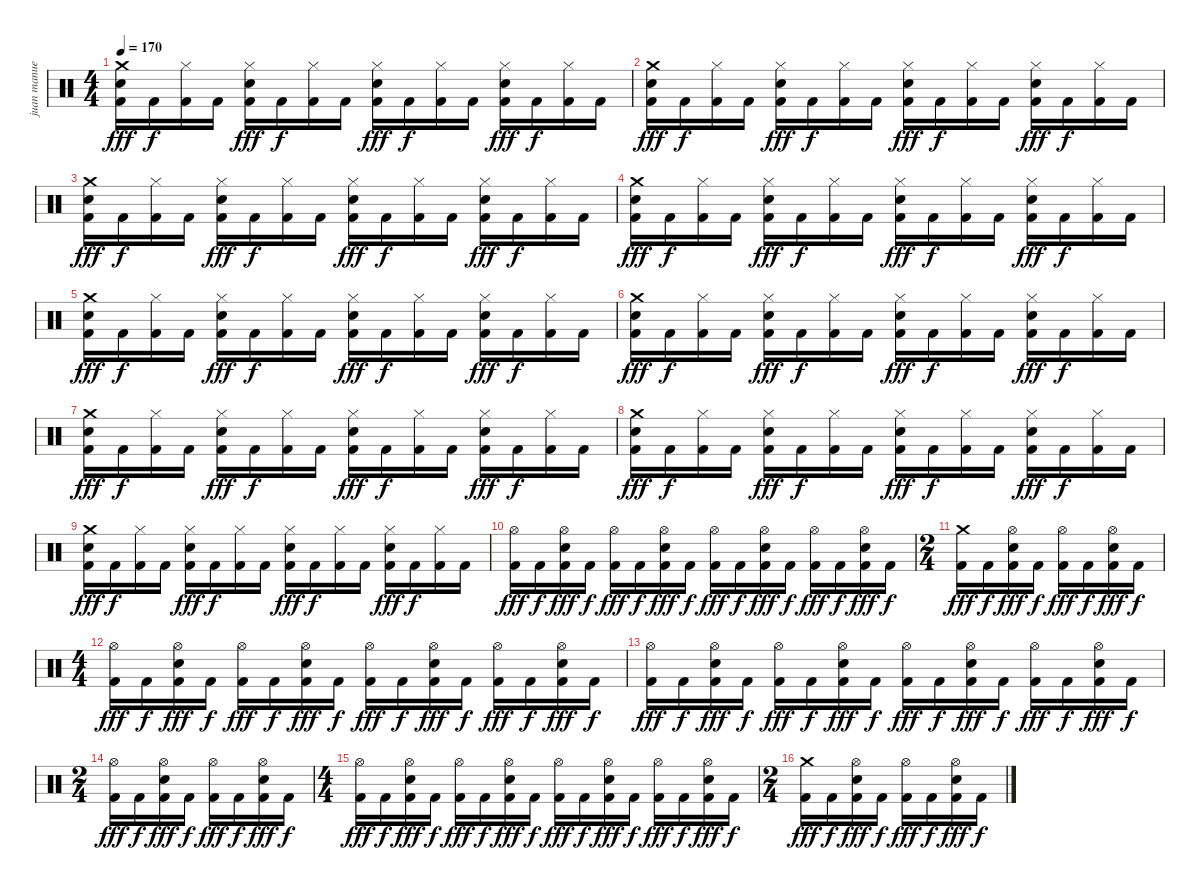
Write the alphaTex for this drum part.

\track ("juan manuel" "juan manue") {instrument percussion}
\staff {score}
\articulation defaults
\ts (4 4)
\tempo 170
\clef neutral
\ks c
("Crash medium (hit)" "Electric Snare (hit)" "Kick (hit) 2").16{dy fff} "Kick (hit) 2".16{dy f} ("Hi-Hat (closed)" "Kick (hit) 2").16 "Kick (hit) 2".16 ("Hi-Hat (closed)" "Electric Snare (hit)" "Kick (hit) 2").16{dy fff} "Kick (hit) 2".16{dy f} ("Hi-Hat (closed)" "Kick (hit) 2").16 "Kick (hit) 2".16 ("Hi-Hat (closed)" "Electric Snare (hit)" "Kick (hit) 2").16{dy fff} "Kick (hit) 2".16{dy f} ("Hi-Hat (closed)" "Kick (hit) 2").16 "Kick (hit) 2".16 ("Hi-Hat (closed)" "Electric Snare (hit)" "Kick (hit) 2").16{dy fff} "Kick (hit) 2".16{dy f} ("Hi-Hat (closed)" "Kick (hit) 2").16 "Kick (hit) 2".16 |
("Crash medium (hit)" "Electric Snare (hit)" "Kick (hit) 2").16{dy fff} "Kick (hit) 2".16{dy f} ("Hi-Hat (closed)" "Kick (hit) 2").16 "Kick (hit) 2".16 ("Hi-Hat (closed)" "Electric Snare (hit)" "Kick (hit) 2").16{dy fff} "Kick (hit) 2".16{dy f} ("Hi-Hat (closed)" "Kick (hit) 2").16 "Kick (hit) 2".16 ("Hi-Hat (closed)" "Electric Snare (hit)" "Kick (hit) 2").16{dy fff} "Kick (hit) 2".16{dy f} ("Hi-Hat (closed)" "Kick (hit) 2").16 "Kick (hit) 2".16 ("Hi-Hat (closed)" "Electric Snare (hit)" "Kick (hit) 2").16{dy fff} "Kick (hit) 2".16{dy f} ("Hi-Hat (closed)" "Kick (hit) 2").16 "Kick (hit) 2".16 |
("Crash medium (hit)" "Electric Snare (hit)" "Kick (hit) 2").16{dy fff} "Kick (hit) 2".16{dy f} ("Hi-Hat (closed)" "Kick (hit) 2").16 "Kick (hit) 2".16 ("Hi-Hat (closed)" "Electric Snare (hit)" "Kick (hit) 2").16{dy fff} "Kick (hit) 2".16{dy f} ("Hi-Hat (closed)" "Kick (hit) 2").16 "Kick (hit) 2".16 ("Hi-Hat (closed)" "Electric Snare (hit)" "Kick (hit) 2").16{dy fff} "Kick (hit) 2".16{dy f} ("Hi-Hat (closed)" "Kick (hit) 2").16 "Kick (hit) 2".16 ("Hi-Hat (closed)" "Electric Snare (hit)" "Kick (hit) 2").16{dy fff} "Kick (hit) 2".16{dy f} ("Hi-Hat (closed)" "Kick (hit) 2").16 "Kick (hit) 2".16 |
("Crash medium (hit)" "Electric Snare (hit)" "Kick (hit) 2").16{dy fff} "Kick (hit) 2".16{dy f} ("Hi-Hat (closed)" "Kick (hit) 2").16 "Kick (hit) 2".16 ("Hi-Hat (closed)" "Electric Snare (hit)" "Kick (hit) 2").16{dy fff} "Kick (hit) 2".16{dy f} ("Hi-Hat (closed)" "Kick (hit) 2").16 "Kick (hit) 2".16 ("Hi-Hat (closed)" "Electric Snare (hit)" "Kick (hit) 2").16{dy fff} "Kick (hit) 2".16{dy f} ("Hi-Hat (closed)" "Kick (hit) 2").16 "Kick (hit) 2".16 ("Hi-Hat (closed)" "Electric Snare (hit)" "Kick (hit) 2").16{dy fff} "Kick (hit) 2".16{dy f} ("Hi-Hat (closed)" "Kick (hit) 2").16 "Kick (hit) 2".16 |
("Crash medium (hit)" "Electric Snare (hit)" "Kick (hit) 2").16{dy fff} "Kick (hit) 2".16{dy f} ("Hi-Hat (closed)" "Kick (hit) 2").16 "Kick (hit) 2".16 ("Hi-Hat (closed)" "Electric Snare (hit)" "Kick (hit) 2").16{dy fff} "Kick (hit) 2".16{dy f} ("Hi-Hat (closed)" "Kick (hit) 2").16 "Kick (hit) 2".16 ("Hi-Hat (closed)" "Electric Snare (hit)" "Kick (hit) 2").16{dy fff} "Kick (hit) 2".16{dy f} ("Hi-Hat (closed)" "Kick (hit) 2").16 "Kick (hit) 2".16 ("Hi-Hat (closed)" "Electric Snare (hit)" "Kick (hit) 2").16{dy fff} "Kick (hit) 2".16{dy f} ("Hi-Hat (closed)" "Kick (hit) 2").16 "Kick (hit) 2".16 |
("Crash medium (hit)" "Electric Snare (hit)" "Kick (hit) 2").16{dy fff} "Kick (hit) 2".16{dy f} ("Hi-Hat (closed)" "Kick (hit) 2").16 "Kick (hit) 2".16 ("Hi-Hat (closed)" "Electric Snare (hit)" "Kick (hit) 2").16{dy fff} "Kick (hit) 2".16{dy f} ("Hi-Hat (closed)" "Kick (hit) 2").16 "Kick (hit) 2".16 ("Hi-Hat (closed)" "Electric Snare (hit)" "Kick (hit) 2").16{dy fff} "Kick (hit) 2".16{dy f} ("Hi-Hat (closed)" "Kick (hit) 2").16 "Kick (hit) 2".16 ("Hi-Hat (closed)" "Electric Snare (hit)" "Kick (hit) 2").16{dy fff} "Kick (hit) 2".16{dy f} ("Hi-Hat (closed)" "Kick (hit) 2").16 "Kick (hit) 2".16 |
("Crash medium (hit)" "Electric Snare (hit)" "Kick (hit) 2").16{dy fff} "Kick (hit) 2".16{dy f} ("Hi-Hat (closed)" "Kick (hit) 2").16 "Kick (hit) 2".16 ("Hi-Hat (closed)" "Electric Snare (hit)" "Kick (hit) 2").16{dy fff} "Kick (hit) 2".16{dy f} ("Hi-Hat (closed)" "Kick (hit) 2").16 "Kick (hit) 2".16 ("Hi-Hat (closed)" "Electric Snare (hit)" "Kick (hit) 2").16{dy fff} "Kick (hit) 2".16{dy f} ("Hi-Hat (closed)" "Kick (hit) 2").16 "Kick (hit) 2".16 ("Hi-Hat (closed)" "Electric Snare (hit)" "Kick (hit) 2").16{dy fff} "Kick (hit) 2".16{dy f} ("Hi-Hat (closed)" "Kick (hit) 2").16 "Kick (hit) 2".16 |
("Crash medium (hit)" "Electric Snare (hit)" "Kick (hit) 2").16{dy fff} "Kick (hit) 2".16{dy f} ("Hi-Hat (closed)" "Kick (hit) 2").16 "Kick (hit) 2".16 ("Hi-Hat (closed)" "Electric Snare (hit)" "Kick (hit) 2").16{dy fff} "Kick (hit) 2".16{dy f} ("Hi-Hat (closed)" "Kick (hit) 2").16 "Kick (hit) 2".16 ("Hi-Hat (closed)" "Electric Snare (hit)" "Kick (hit) 2").16{dy fff} "Kick (hit) 2".16{dy f} ("Hi-Hat (closed)" "Kick (hit) 2").16 "Kick (hit) 2".16 ("Hi-Hat (closed)" "Electric Snare (hit)" "Kick (hit) 2").16{dy fff} "Kick (hit) 2".16{dy f} ("Hi-Hat (closed)" "Kick (hit) 2").16 "Kick (hit) 2".16 |
("Crash medium (hit)" "Electric Snare (hit)" "Kick (hit) 2").16{dy fff} "Kick (hit) 2".16{dy f} ("Hi-Hat (closed)" "Kick (hit) 2").16 "Kick (hit) 2".16 ("Hi-Hat (closed)" "Electric Snare (hit)" "Kick (hit) 2").16{dy fff} "Kick (hit) 2".16{dy f} ("Hi-Hat (closed)" "Kick (hit) 2").16 "Kick (hit) 2".16 ("Hi-Hat (closed)" "Electric Snare (hit)" "Kick (hit) 2").16{dy fff} "Kick (hit) 2".16{dy f} ("Hi-Hat (closed)" "Kick (hit) 2").16 "Kick (hit) 2".16 ("Hi-Hat (closed)" "Electric Snare (hit)" "Kick (hit) 2").16{dy fff} "Kick (hit) 2".16{dy f} ("Hi-Hat (closed)" "Kick (hit) 2").16 "Kick (hit) 2".16 |
("Hi-Hat (open)" "Kick (hit) 2").16{dy fff} "Kick (hit) 2".16{dy f} ("Hi-Hat (open)" "Electric Snare (hit)" "Kick (hit) 2").16{dy fff} "Kick (hit) 2".16{dy f} ("Hi-Hat (open)" "Kick (hit) 2").16{dy fff} "Kick (hit) 2".16{dy f} ("Hi-Hat (open)" "Electric Snare (hit)" "Kick (hit) 2").16{dy fff} "Kick (hit) 2".16{dy f} ("Hi-Hat (open)" "Kick (hit) 2").16{dy fff} "Kick (hit) 2".16{dy f} ("Hi-Hat (open)" "Electric Snare (hit)" "Kick (hit) 2").16{dy fff} "Kick (hit) 2".16{dy f} ("Hi-Hat (open)" "Kick (hit) 2").16{dy fff} "Kick (hit) 2".16{dy f} ("Hi-Hat (open)" "Electric Snare (hit)" "Kick (hit) 2").16{dy fff} "Kick (hit) 2".16{dy f} |
\ts (2 4)
("Crash medium (hit)" "Kick (hit) 2").16{dy fff} "Kick (hit) 2".16{dy f} ("Hi-Hat (open)" "Electric Snare (hit)" "Kick (hit) 2").16{dy fff} "Kick (hit) 2".16{dy f} ("Hi-Hat (open)" "Kick (hit) 2").16{dy fff} "Kick (hit) 2".16{dy f} ("Hi-Hat (open)" "Electric Snare (hit)" "Kick (hit) 2").16{dy fff} "Kick (hit) 2".16{dy f} |
\ts (4 4)
("Hi-Hat (open)" "Kick (hit) 2").16{dy fff} "Kick (hit) 2".16{dy f} ("Hi-Hat (open)" "Electric Snare (hit)" "Kick (hit) 2").16{dy fff} "Kick (hit) 2".16{dy f} ("Hi-Hat (open)" "Kick (hit) 2").16{dy fff} "Kick (hit) 2".16{dy f} ("Hi-Hat (open)" "Electric Snare (hit)" "Kick (hit) 2").16{dy fff} "Kick (hit) 2".16{dy f} ("Hi-Hat (open)" "Kick (hit) 2").16{dy fff} "Kick (hit) 2".16{dy f} ("Hi-Hat (open)" "Electric Snare (hit)" "Kick (hit) 2").16{dy fff} "Kick (hit) 2".16{dy f} ("Hi-Hat (open)" "Kick (hit) 2").16{dy fff} "Kick (hit) 2".16{dy f} ("Hi-Hat (open)" "Electric Snare (hit)" "Kick (hit) 2").16{dy fff} "Kick (hit) 2".16{dy f} |
("Hi-Hat (open)" "Kick (hit) 2").16{dy fff} "Kick (hit) 2".16{dy f} ("Hi-Hat (open)" "Electric Snare (hit)" "Kick (hit) 2").16{dy fff} "Kick (hit) 2".16{dy f} ("Hi-Hat (open)" "Kick (hit) 2").16{dy fff} "Kick (hit) 2".16{dy f} ("Hi-Hat (open)" "Electric Snare (hit)" "Kick (hit) 2").16{dy fff} "Kick (hit) 2".16{dy f} ("Hi-Hat (open)" "Kick (hit) 2").16{dy fff} "Kick (hit) 2".16{dy f} ("Hi-Hat (open)" "Electric Snare (hit)" "Kick (hit) 2").16{dy fff} "Kick (hit) 2".16{dy f} ("Hi-Hat (open)" "Kick (hit) 2").16{dy fff} "Kick (hit) 2".16{dy f} ("Hi-Hat (open)" "Electric Snare (hit)" "Kick (hit) 2").16{dy fff} "Kick (hit) 2".16{dy f} |
\ts (2 4)
("Hi-Hat (open)" "Kick (hit) 2").16{dy fff} "Kick (hit) 2".16{dy f} ("Hi-Hat (open)" "Electric Snare (hit)" "Kick (hit) 2").16{dy fff} "Kick (hit) 2".16{dy f} ("Hi-Hat (open)" "Kick (hit) 2").16{dy fff} "Kick (hit) 2".16{dy f} ("Hi-Hat (open)" "Electric Snare (hit)" "Kick (hit) 2").16{dy fff} "Kick (hit) 2".16{dy f} |
\ts (4 4)
("Hi-Hat (open)" "Kick (hit) 2").16{dy fff} "Kick (hit) 2".16{dy f} ("Hi-Hat (open)" "Electric Snare (hit)" "Kick (hit) 2").16{dy fff} "Kick (hit) 2".16{dy f} ("Hi-Hat (open)" "Kick (hit) 2").16{dy fff} "Kick (hit) 2".16{dy f} ("Hi-Hat (open)" "Electric Snare (hit)" "Kick (hit) 2").16{dy fff} "Kick (hit) 2".16{dy f} ("Hi-Hat (open)" "Kick (hit) 2").16{dy fff} "Kick (hit) 2".16{dy f} ("Hi-Hat (open)" "Electric Snare (hit)" "Kick (hit) 2").16{dy fff} "Kick (hit) 2".16{dy f} ("Hi-Hat (open)" "Kick (hit) 2").16{dy fff} "Kick (hit) 2".16{dy f} ("Hi-Hat (open)" "Electric Snare (hit)" "Kick (hit) 2").16{dy fff} "Kick (hit) 2".16{dy f} |
\ts (2 4)
("Crash medium (hit)" "Kick (hit) 2").16{dy fff} "Kick (hit) 2".16{dy f} ("Hi-Hat (open)" "Electric Snare (hit)" "Kick (hit) 2").16{dy fff} "Kick (hit) 2".16{dy f} ("Hi-Hat (open)" "Kick (hit) 2").16{dy fff} "Kick (hit) 2".16{dy f} ("Hi-Hat (open)" "Electric Snare (hit)" "Kick (hit) 2").16{dy fff} "Kick (hit) 2".16{dy f}
